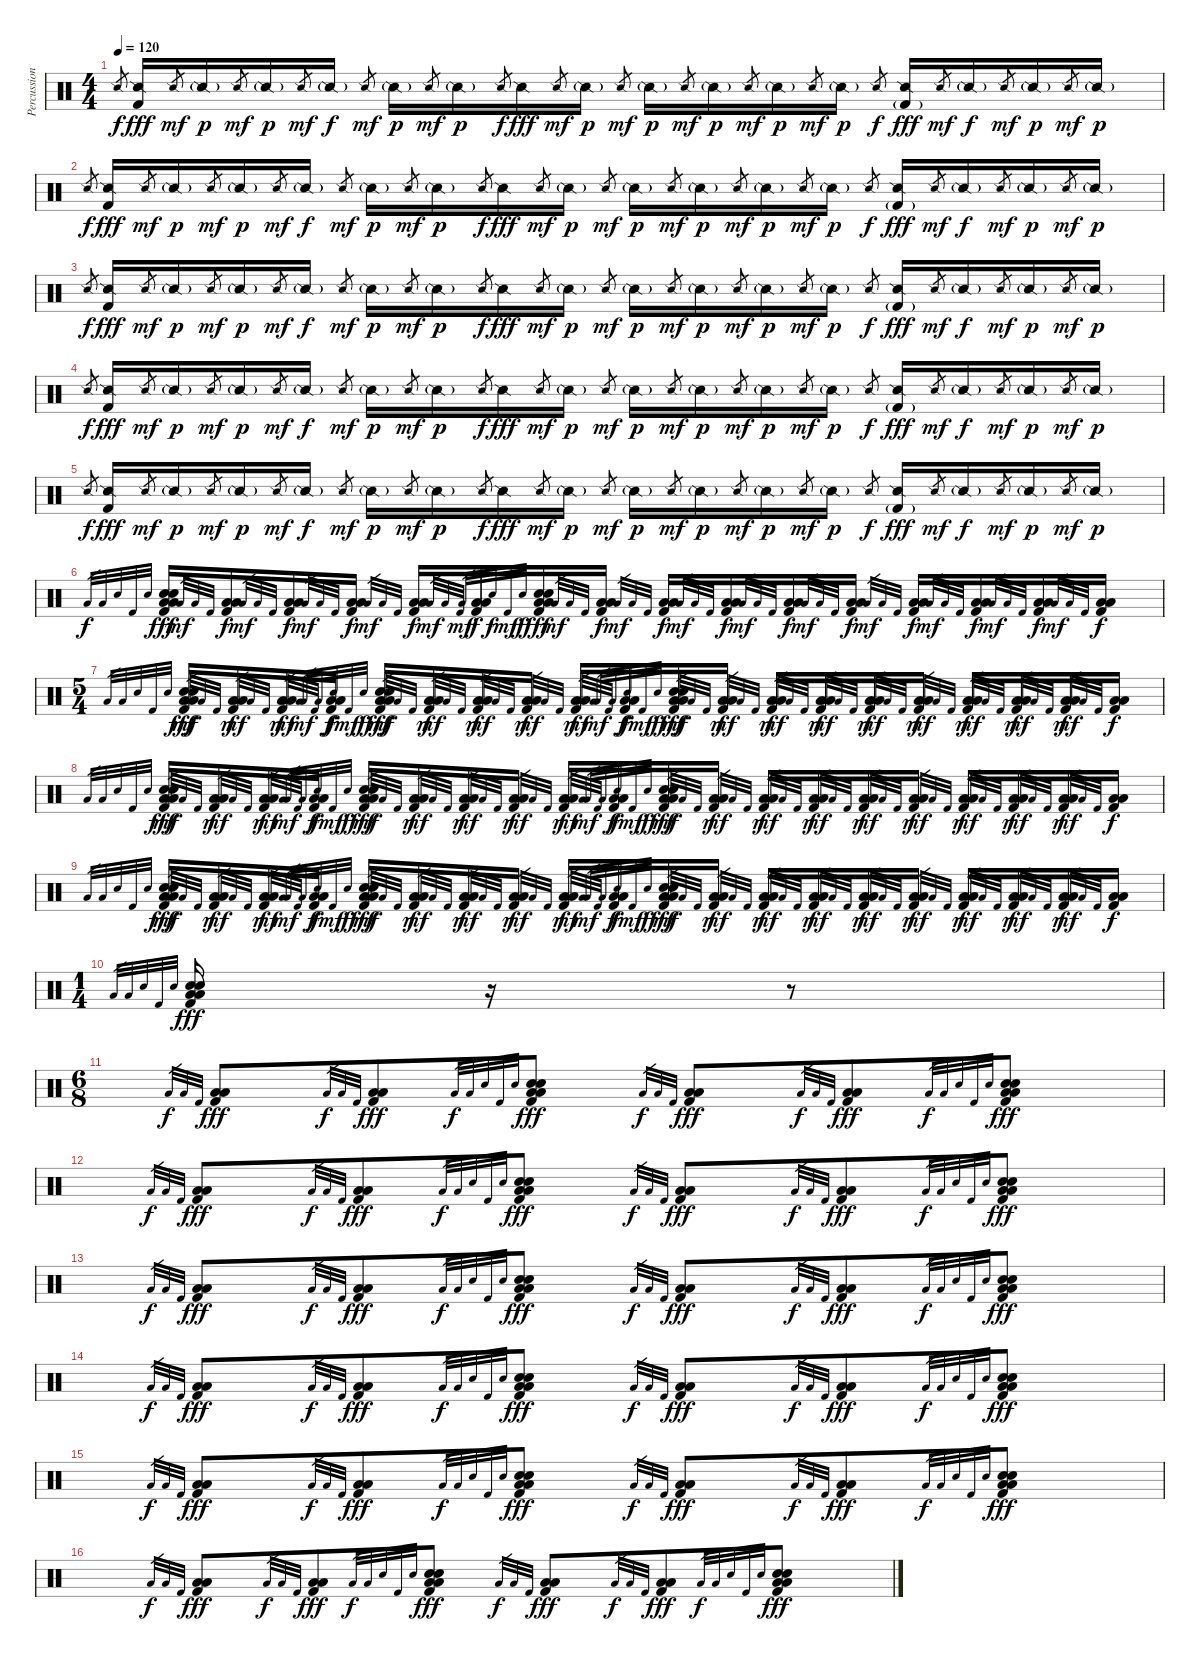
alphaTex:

\track ("Percussion" "Percussion") {instrument percussion}
\staff {score}
\articulation defaults
\ts (4 4)
\tempo 120
\clef neutral
\ks c "Snare (side stick) 2".8{gr dy f}
("Snare (side stick) 2" "Kick (hit) 2").16{dy fff} "Snare (side stick) 2".8{gr dy mf} "Snare (side stick) 2"{g}.16{dy p} "Snare (side stick) 2".8{gr dy mf} "Snare (side stick) 2"{g}.16{dy p} "Snare (side stick) 2".8{gr dy mf} "Snare (side stick) 2"{g}.16{dy f} "Snare (side stick) 2".8{gr dy mf} "Snare (side stick) 2"{g}.16{dy p} "Snare (side stick) 2".8{gr dy mf} "Snare (side stick) 2"{g}.16{dy p} "Snare (side stick) 2".8{gr dy f} "Snare (side stick) 2".16{dy fff} "Snare (side stick) 2".8{gr dy mf} "Snare (side stick) 2"{g}.16{dy p} "Snare (side stick) 2".8{gr dy mf} "Snare (side stick) 2"{g}.16{dy p} "Snare (side stick) 2".8{gr dy mf} "Snare (side stick) 2"{g}.16{dy p} "Snare (side stick) 2".8{gr dy mf} "Snare (side stick) 2"{g}.16{dy p} "Snare (side stick) 2".8{gr dy mf} "Snare (side stick) 2"{g}.16{dy p} "Snare (side stick) 2".8{gr dy f} ("Snare (side stick) 2" "Kick (hit) 2"{g}).16{dy fff} "Snare (side stick) 2".8{gr dy mf} "Snare (side stick) 2"{g}.16{dy f} "Snare (side stick) 2".8{gr dy mf} "Snare (side stick) 2"{g}.16{dy p} "Snare (side stick) 2".8{gr dy mf} "Snare (side stick) 2"{g}.16{dy p} |
"Snare (side stick) 2".8{gr dy f} ("Snare (side stick) 2" "Kick (hit) 2").16{dy fff} "Snare (side stick) 2".8{gr dy mf} "Snare (side stick) 2"{g}.16{dy p} "Snare (side stick) 2".8{gr dy mf} "Snare (side stick) 2"{g}.16{dy p} "Snare (side stick) 2".8{gr dy mf} "Snare (side stick) 2"{g}.16{dy f} "Snare (side stick) 2".8{gr dy mf} "Snare (side stick) 2"{g}.16{dy p} "Snare (side stick) 2".8{gr dy mf} "Snare (side stick) 2"{g}.16{dy p} "Snare (side stick) 2".8{gr dy f} "Snare (side stick) 2".16{dy fff} "Snare (side stick) 2".8{gr dy mf} "Snare (side stick) 2"{g}.16{dy p} "Snare (side stick) 2".8{gr dy mf} "Snare (side stick) 2"{g}.16{dy p} "Snare (side stick) 2".8{gr dy mf} "Snare (side stick) 2"{g}.16{dy p} "Snare (side stick) 2".8{gr dy mf} "Snare (side stick) 2"{g}.16{dy p} "Snare (side stick) 2".8{gr dy mf} "Snare (side stick) 2"{g}.16{dy p} "Snare (side stick) 2".8{gr dy f} ("Snare (side stick) 2" "Kick (hit) 2"{g}).16{dy fff} "Snare (side stick) 2".8{gr dy mf} "Snare (side stick) 2"{g}.16{dy f} "Snare (side stick) 2".8{gr dy mf} "Snare (side stick) 2"{g}.16{dy p} "Snare (side stick) 2".8{gr dy mf} "Snare (side stick) 2"{g}.16{dy p} |
"Snare (side stick) 2".8{gr dy f} ("Snare (side stick) 2" "Kick (hit) 2").16{dy fff} "Snare (side stick) 2".8{gr dy mf} "Snare (side stick) 2"{g}.16{dy p} "Snare (side stick) 2".8{gr dy mf} "Snare (side stick) 2"{g}.16{dy p} "Snare (side stick) 2".8{gr dy mf} "Snare (side stick) 2"{g}.16{dy f} "Snare (side stick) 2".8{gr dy mf} "Snare (side stick) 2"{g}.16{dy p} "Snare (side stick) 2".8{gr dy mf} "Snare (side stick) 2"{g}.16{dy p} "Snare (side stick) 2".8{gr dy f} "Snare (side stick) 2".16{dy fff} "Snare (side stick) 2".8{gr dy mf} "Snare (side stick) 2"{g}.16{dy p} "Snare (side stick) 2".8{gr dy mf} "Snare (side stick) 2"{g}.16{dy p} "Snare (side stick) 2".8{gr dy mf} "Snare (side stick) 2"{g}.16{dy p} "Snare (side stick) 2".8{gr dy mf} "Snare (side stick) 2"{g}.16{dy p} "Snare (side stick) 2".8{gr dy mf} "Snare (side stick) 2"{g}.16{dy p} "Snare (side stick) 2".8{gr dy f} ("Snare (side stick) 2" "Kick (hit) 2"{g}).16{dy fff} "Snare (side stick) 2".8{gr dy mf} "Snare (side stick) 2"{g}.16{dy f} "Snare (side stick) 2".8{gr dy mf} "Snare (side stick) 2"{g}.16{dy p} "Snare (side stick) 2".8{gr dy mf} "Snare (side stick) 2"{g}.16{dy p} |
"Snare (side stick) 2".8{gr dy f} ("Snare (side stick) 2" "Kick (hit) 2").16{dy fff} "Snare (side stick) 2".8{gr dy mf} "Snare (side stick) 2"{g}.16{dy p} "Snare (side stick) 2".8{gr dy mf} "Snare (side stick) 2"{g}.16{dy p} "Snare (side stick) 2".8{gr dy mf} "Snare (side stick) 2"{g}.16{dy f} "Snare (side stick) 2".8{gr dy mf} "Snare (side stick) 2"{g}.16{dy p} "Snare (side stick) 2".8{gr dy mf} "Snare (side stick) 2"{g}.16{dy p} "Snare (side stick) 2".8{gr dy f} "Snare (side stick) 2".16{dy fff} "Snare (side stick) 2".8{gr dy mf} "Snare (side stick) 2"{g}.16{dy p} "Snare (side stick) 2".8{gr dy mf} "Snare (side stick) 2"{g}.16{dy p} "Snare (side stick) 2".8{gr dy mf} "Snare (side stick) 2"{g}.16{dy p} "Snare (side stick) 2".8{gr dy mf} "Snare (side stick) 2"{g}.16{dy p} "Snare (side stick) 2".8{gr dy mf} "Snare (side stick) 2"{g}.16{dy p} "Snare (side stick) 2".8{gr dy f} ("Snare (side stick) 2" "Kick (hit) 2"{g}).16{dy fff} "Snare (side stick) 2".8{gr dy mf} "Snare (side stick) 2"{g}.16{dy f} "Snare (side stick) 2".8{gr dy mf} "Snare (side stick) 2"{g}.16{dy p} "Snare (side stick) 2".8{gr dy mf} "Snare (side stick) 2"{g}.16{dy p} |
"Snare (side stick) 2".8{gr dy f} ("Snare (side stick) 2" "Kick (hit) 2").16{dy fff} "Snare (side stick) 2".8{gr dy mf} "Snare (side stick) 2"{g}.16{dy p} "Snare (side stick) 2".8{gr dy mf} "Snare (side stick) 2"{g}.16{dy p} "Snare (side stick) 2".8{gr dy mf} "Snare (side stick) 2"{g}.16{dy f} "Snare (side stick) 2".8{gr dy mf} "Snare (side stick) 2"{g}.16{dy p} "Snare (side stick) 2".8{gr dy mf} "Snare (side stick) 2"{g}.16{dy p} "Snare (side stick) 2".8{gr dy f} "Snare (side stick) 2".16{dy fff} "Snare (side stick) 2".8{gr dy mf} "Snare (side stick) 2"{g}.16{dy p} "Snare (side stick) 2".8{gr dy mf} "Snare (side stick) 2"{g}.16{dy p} "Snare (side stick) 2".8{gr dy mf} "Snare (side stick) 2"{g}.16{dy p} "Snare (side stick) 2".8{gr dy mf} "Snare (side stick) 2"{g}.16{dy p} "Snare (side stick) 2".8{gr dy mf} "Snare (side stick) 2"{g}.16{dy p} "Snare (side stick) 2".8{gr dy f} ("Snare (side stick) 2" "Kick (hit) 2"{g}).16{dy fff} "Snare (side stick) 2".8{gr dy mf} "Snare (side stick) 2"{g}.16{dy f} "Snare (side stick) 2".8{gr dy mf} "Snare (side stick) 2"{g}.16{dy p} "Snare (side stick) 2".8{gr dy mf} "Snare (side stick) 2"{g}.16{dy p} |
"Low Floor Tom (hit)".32{gr dy f} "Low Tom (hit)".32{gr} "Snare (hit) 2".32{gr} "Kick (hit) 2".32{gr} "Snare (hit) 2".32{gr} ("Low Floor Tom (hit)" "Low Tom (hit)" "Snare (hit) 2" "Kick (hit) 2" "Snare (hit) 2").16{dy fff} "Low Floor Tom (hit)".32{gr dy mf} "Low Tom (hit)".32{gr} "Kick (hit) 2".32{gr} ("Low Floor Tom (hit)" "Low Tom (hit)" "Kick (hit) 2").16{dy f} "Low Floor Tom (hit)".32{gr dy mf} "Low Tom (hit)".32{gr} "Kick (hit) 2".32{gr} ("Low Floor Tom (hit)" "Low Tom (hit)" "Kick (hit) 2").16{dy f} "Low Floor Tom (hit)".32{gr dy mf} "Low Tom (hit)".32{gr} "Kick (hit) 2".32{gr} ("Low Floor Tom (hit)" "Low Tom (hit)" "Kick (hit) 2").16{dy f} "Low Floor Tom (hit)".32{gr dy mf} "Low Tom (hit)".32{gr} "Kick (hit) 2".32{gr} ("Low Floor Tom (hit)" "Low Tom (hit)" "Kick (hit) 2").16{dy f} "Low Floor Tom (hit)".32{gr dy mf} "Low Tom (hit)".32{gr} "Kick (hit) 2".32{gr} ("Low Floor Tom (hit)" "Low Tom (hit)" "Kick (hit) 2").16{dy f} "Low Floor Tom (hit)".32{gr dy mf} "Low Tom (hit)".32{gr} "Snare (hit) 2".32{gr dy f} "Kick (hit) 2".32{gr dy mf} "Snare (hit) 2".32{gr dy f} ("Low Floor Tom (hit)" "Low Tom (hit)" "Snare (hit) 2" "Kick (hit) 2" "Snare (hit) 2").16{dy fff} "Low Floor Tom (hit)".32{gr dy mf} "Low Tom (hit)".32{gr} "Kick (hit) 2".32{gr} ("Low Floor Tom (hit)" "Low Tom (hit)" "Kick (hit) 2").16{dy f} "Low Floor Tom (hit)".32{gr dy mf} "Low Tom (hit)".32{gr} "Kick (hit) 2".32{gr} ("Low Floor Tom (hit)" "Low Tom (hit)" "Kick (hit) 2").16{dy f} "Low Floor Tom (hit)".32{gr dy mf} "Low Tom (hit)".32{gr} "Kick (hit) 2".32{gr} ("Low Floor Tom (hit)" "Low Tom (hit)" "Kick (hit) 2").16{dy f} "Low Floor Tom (hit)".32{gr dy mf} "Low Tom (hit)".32{gr} "Kick (hit) 2".32{gr} ("Low Floor Tom (hit)" "Low Tom (hit)" "Kick (hit) 2").16{dy f} "Low Floor Tom (hit)".32{gr dy mf} "Low Tom (hit)".32{gr} "Kick (hit) 2".32{gr} ("Low Floor Tom (hit)" "Low Tom (hit)" "Kick (hit) 2").16{dy f} "Low Floor Tom (hit)".32{gr dy mf} "Low Tom (hit)".32{gr} "Kick (hit) 2".32{gr} ("Low Floor Tom (hit)" "Low Tom (hit)" "Kick (hit) 2").16{dy f} "Low Floor Tom (hit)".32{gr dy mf} "Low Tom (hit)".32{gr} "Kick (hit) 2".32{gr} ("Low Floor Tom (hit)" "Low Tom (hit)" "Kick (hit) 2").16{dy f} "Low Floor Tom (hit)".32{gr dy mf} "Low Tom (hit)".32{gr} "Kick (hit) 2".32{gr} ("Low Floor Tom (hit)" "Low Tom (hit)" "Kick (hit) 2").16{dy f} "Low Floor Tom (hit)".32{gr dy mf} "Low Tom (hit)".32{gr} "Kick (hit) 2".32{gr} ("Low Floor Tom (hit)" "Low Tom (hit)" "Kick (hit) 2").16{dy f} |
\ts (5 4)
"Low Floor Tom (hit)".32{gr} "Low Tom (hit)".32{gr} "Snare (hit) 2".32{gr} "Kick (hit) 2".32{gr} "Snare (hit) 2".32{gr} ("Low Floor Tom (hit)" "Low Tom (hit)" "Snare (hit) 2" "Kick (hit) 2" "Snare (hit) 2").16{dy fff} "Low Floor Tom (hit)".32{gr dy mf} "Low Tom (hit)".32{gr} "Kick (hit) 2".32{gr} ("Low Floor Tom (hit)" "Low Tom (hit)" "Kick (hit) 2").16{dy f} "Low Floor Tom (hit)".32{gr dy mf} "Low Tom (hit)".32{gr} "Kick (hit) 2".32{gr} ("Low Floor Tom (hit)" "Low Tom (hit)" "Kick (hit) 2").16{dy f} "Low Floor Tom (hit)".32{gr dy mf} "Low Tom (hit)".32{gr} "Kick (hit) 2".32{gr} ("Low Floor Tom (hit)" "Low Tom (hit)" "Kick (hit) 2").16{dy f} "Low Floor Tom (hit)".32{gr dy mf} "Low Tom (hit)".32{gr} "Snare (hit) 2".32{gr dy f} "Kick (hit) 2".32{gr dy mf} "Snare (hit) 2".32{gr dy f} ("Low Floor Tom (hit)" "Low Tom (hit)" "Snare (hit) 2" "Kick (hit) 2" "Snare (hit) 2").16{dy fff} "Low Floor Tom (hit)".32{gr dy mf} "Low Tom (hit)".32{gr} "Kick (hit) 2".32{gr} ("Low Floor Tom (hit)" "Low Tom (hit)" "Kick (hit) 2").16{dy f} "Low Floor Tom (hit)".32{gr dy mf} "Low Tom (hit)".32{gr} "Kick (hit) 2".32{gr} ("Low Floor Tom (hit)" "Low Tom (hit)" "Kick (hit) 2").16{dy f} "Low Floor Tom (hit)".32{gr dy mf} "Low Tom (hit)".32{gr} "Kick (hit) 2".32{gr} ("Low Floor Tom (hit)" "Low Tom (hit)" "Kick (hit) 2").16{dy f} "Low Floor Tom (hit)".32{gr dy mf} "Low Tom (hit)".32{gr} "Kick (hit) 2".32{gr} ("Low Floor Tom (hit)" "Low Tom (hit)" "Kick (hit) 2").16{dy f} "Low Floor Tom (hit)".32{gr dy mf} "Low Tom (hit)".32{gr} "Kick (hit) 2".32{gr} ("Low Floor Tom (hit)" "Low Tom (hit)" "Kick (hit) 2").16{dy f} "Low Floor Tom (hit)".32{gr dy mf} "Low Tom (hit)".32{gr} "Snare (hit) 2".32{gr dy f} "Kick (hit) 2".32{gr dy mf} "Snare (hit) 2".32{gr dy f} ("Low Floor Tom (hit)" "Low Tom (hit)" "Snare (hit) 2" "Kick (hit) 2" "Snare (hit) 2").16{dy fff} "Low Floor Tom (hit)".32{gr dy mf} "Low Tom (hit)".32{gr} "Kick (hit) 2".32{gr} ("Low Floor Tom (hit)" "Low Tom (hit)" "Kick (hit) 2").16{dy f} "Low Floor Tom (hit)".32{gr dy mf} "Low Tom (hit)".32{gr} "Kick (hit) 2".32{gr} ("Low Floor Tom (hit)" "Low Tom (hit)" "Kick (hit) 2").16{dy f} "Low Floor Tom (hit)".32{gr dy mf} "Low Tom (hit)".32{gr} "Kick (hit) 2".32{gr} ("Low Floor Tom (hit)" "Low Tom (hit)" "Kick (hit) 2").16{dy f} "Low Floor Tom (hit)".32{gr dy mf} "Low Tom (hit)".32{gr} "Kick (hit) 2".32{gr} ("Low Floor Tom (hit)" "Low Tom (hit)" "Kick (hit) 2").16{dy f} "Low Floor Tom (hit)".32{gr dy mf} "Low Tom (hit)".32{gr} "Kick (hit) 2".32{gr} ("Low Floor Tom (hit)" "Low Tom (hit)" "Kick (hit) 2").16{dy f} "Low Floor Tom (hit)".32{gr dy mf} "Low Tom (hit)".32{gr} "Kick (hit) 2".32{gr} ("Low Floor Tom (hit)" "Low Tom (hit)" "Kick (hit) 2").16{dy f} "Low Floor Tom (hit)".32{gr dy mf} "Low Tom (hit)".32{gr} "Kick (hit) 2".32{gr} ("Low Floor Tom (hit)" "Low Tom (hit)" "Kick (hit) 2").16{dy f} "Low Floor Tom (hit)".32{gr dy mf} "Low Tom (hit)".32{gr} "Kick (hit) 2".32{gr} ("Low Floor Tom (hit)" "Low Tom (hit)" "Kick (hit) 2").16{dy f} "Low Floor Tom (hit)".32{gr dy mf} "Low Tom (hit)".32{gr} "Kick (hit) 2".32{gr} ("Low Floor Tom (hit)" "Low Tom (hit)" "Kick (hit) 2").16{dy f} |
"Low Floor Tom (hit)".32{gr} "Low Tom (hit)".32{gr} "Snare (hit) 2".32{gr} "Kick (hit) 2".32{gr} "Snare (hit) 2".32{gr} ("Low Floor Tom (hit)" "Low Tom (hit)" "Snare (hit) 2" "Kick (hit) 2" "Snare (hit) 2").16{dy fff} "Low Floor Tom (hit)".32{gr dy mf} "Low Tom (hit)".32{gr} "Kick (hit) 2".32{gr} ("Low Floor Tom (hit)" "Low Tom (hit)" "Kick (hit) 2").16{dy f} "Low Floor Tom (hit)".32{gr dy mf} "Low Tom (hit)".32{gr} "Kick (hit) 2".32{gr} ("Low Floor Tom (hit)" "Low Tom (hit)" "Kick (hit) 2").16{dy f} "Low Floor Tom (hit)".32{gr dy mf} "Low Tom (hit)".32{gr} "Kick (hit) 2".32{gr} ("Low Floor Tom (hit)" "Low Tom (hit)" "Kick (hit) 2").16{dy f} "Low Floor Tom (hit)".32{gr dy mf} "Low Tom (hit)".32{gr} "Snare (hit) 2".32{gr dy f} "Kick (hit) 2".32{gr dy mf} "Snare (hit) 2".32{gr dy f} ("Low Floor Tom (hit)" "Low Tom (hit)" "Snare (hit) 2" "Kick (hit) 2" "Snare (hit) 2").16{dy fff} "Low Floor Tom (hit)".32{gr dy mf} "Low Tom (hit)".32{gr} "Kick (hit) 2".32{gr} ("Low Floor Tom (hit)" "Low Tom (hit)" "Kick (hit) 2").16{dy f} "Low Floor Tom (hit)".32{gr dy mf} "Low Tom (hit)".32{gr} "Kick (hit) 2".32{gr} ("Low Floor Tom (hit)" "Low Tom (hit)" "Kick (hit) 2").16{dy f} "Low Floor Tom (hit)".32{gr dy mf} "Low Tom (hit)".32{gr} "Kick (hit) 2".32{gr} ("Low Floor Tom (hit)" "Low Tom (hit)" "Kick (hit) 2").16{dy f} "Low Floor Tom (hit)".32{gr dy mf} "Low Tom (hit)".32{gr} "Kick (hit) 2".32{gr} ("Low Floor Tom (hit)" "Low Tom (hit)" "Kick (hit) 2").16{dy f} "Low Floor Tom (hit)".32{gr dy mf} "Low Tom (hit)".32{gr} "Kick (hit) 2".32{gr} ("Low Floor Tom (hit)" "Low Tom (hit)" "Kick (hit) 2").16{dy f} "Low Floor Tom (hit)".32{gr dy mf} "Low Tom (hit)".32{gr} "Snare (hit) 2".32{gr dy f} "Kick (hit) 2".32{gr dy mf} "Snare (hit) 2".32{gr dy f} ("Low Floor Tom (hit)" "Low Tom (hit)" "Snare (hit) 2" "Kick (hit) 2" "Snare (hit) 2").16{dy fff} "Low Floor Tom (hit)".32{gr dy mf} "Low Tom (hit)".32{gr} "Kick (hit) 2".32{gr} ("Low Floor Tom (hit)" "Low Tom (hit)" "Kick (hit) 2").16{dy f} "Low Floor Tom (hit)".32{gr dy mf} "Low Tom (hit)".32{gr} "Kick (hit) 2".32{gr} ("Low Floor Tom (hit)" "Low Tom (hit)" "Kick (hit) 2").16{dy f} "Low Floor Tom (hit)".32{gr dy mf} "Low Tom (hit)".32{gr} "Kick (hit) 2".32{gr} ("Low Floor Tom (hit)" "Low Tom (hit)" "Kick (hit) 2").16{dy f} "Low Floor Tom (hit)".32{gr dy mf} "Low Tom (hit)".32{gr} "Kick (hit) 2".32{gr} ("Low Floor Tom (hit)" "Low Tom (hit)" "Kick (hit) 2").16{dy f} "Low Floor Tom (hit)".32{gr dy mf} "Low Tom (hit)".32{gr} "Kick (hit) 2".32{gr} ("Low Floor Tom (hit)" "Low Tom (hit)" "Kick (hit) 2").16{dy f} "Low Floor Tom (hit)".32{gr dy mf} "Low Tom (hit)".32{gr} "Kick (hit) 2".32{gr} ("Low Floor Tom (hit)" "Low Tom (hit)" "Kick (hit) 2").16{dy f} "Low Floor Tom (hit)".32{gr dy mf} "Low Tom (hit)".32{gr} "Kick (hit) 2".32{gr} ("Low Floor Tom (hit)" "Low Tom (hit)" "Kick (hit) 2").16{dy f} "Low Floor Tom (hit)".32{gr dy mf} "Low Tom (hit)".32{gr} "Kick (hit) 2".32{gr} ("Low Floor Tom (hit)" "Low Tom (hit)" "Kick (hit) 2").16{dy f} "Low Floor Tom (hit)".32{gr dy mf} "Low Tom (hit)".32{gr} "Kick (hit) 2".32{gr} ("Low Floor Tom (hit)" "Low Tom (hit)" "Kick (hit) 2").16{dy f} |
"Low Floor Tom (hit)".32{gr} "Low Tom (hit)".32{gr} "Snare (hit) 2".32{gr} "Kick (hit) 2".32{gr} "Snare (hit) 2".32{gr} ("Low Floor Tom (hit)" "Low Tom (hit)" "Snare (hit) 2" "Kick (hit) 2" "Snare (hit) 2").16{dy fff} "Low Floor Tom (hit)".32{gr dy mf} "Low Tom (hit)".32{gr} "Kick (hit) 2".32{gr} ("Low Floor Tom (hit)" "Low Tom (hit)" "Kick (hit) 2").16{dy f} "Low Floor Tom (hit)".32{gr dy mf} "Low Tom (hit)".32{gr} "Kick (hit) 2".32{gr} ("Low Floor Tom (hit)" "Low Tom (hit)" "Kick (hit) 2").16{dy f} "Low Floor Tom (hit)".32{gr dy mf} "Low Tom (hit)".32{gr} "Kick (hit) 2".32{gr} ("Low Floor Tom (hit)" "Low Tom (hit)" "Kick (hit) 2").16{dy f} "Low Floor Tom (hit)".32{gr dy mf} "Low Tom (hit)".32{gr} "Snare (hit) 2".32{gr dy f} "Kick (hit) 2".32{gr dy mf} "Snare (hit) 2".32{gr dy f} ("Low Floor Tom (hit)" "Low Tom (hit)" "Snare (hit) 2" "Kick (hit) 2" "Snare (hit) 2").16{dy fff} "Low Floor Tom (hit)".32{gr dy mf} "Low Tom (hit)".32{gr} "Kick (hit) 2".32{gr} ("Low Floor Tom (hit)" "Low Tom (hit)" "Kick (hit) 2").16{dy f} "Low Floor Tom (hit)".32{gr dy mf} "Low Tom (hit)".32{gr} "Kick (hit) 2".32{gr} ("Low Floor Tom (hit)" "Low Tom (hit)" "Kick (hit) 2").16{dy f} "Low Floor Tom (hit)".32{gr dy mf} "Low Tom (hit)".32{gr} "Kick (hit) 2".32{gr} ("Low Floor Tom (hit)" "Low Tom (hit)" "Kick (hit) 2").16{dy f} "Low Floor Tom (hit)".32{gr dy mf} "Low Tom (hit)".32{gr} "Kick (hit) 2".32{gr} ("Low Floor Tom (hit)" "Low Tom (hit)" "Kick (hit) 2").16{dy f} "Low Floor Tom (hit)".32{gr dy mf} "Low Tom (hit)".32{gr} "Kick (hit) 2".32{gr} ("Low Floor Tom (hit)" "Low Tom (hit)" "Kick (hit) 2").16{dy f} "Low Floor Tom (hit)".32{gr dy mf} "Low Tom (hit)".32{gr} "Snare (hit) 2".32{gr dy f} "Kick (hit) 2".32{gr dy mf} "Snare (hit) 2".32{gr dy f} ("Low Floor Tom (hit)" "Low Tom (hit)" "Snare (hit) 2" "Kick (hit) 2" "Snare (hit) 2").16{dy fff} "Low Floor Tom (hit)".32{gr dy mf} "Low Tom (hit)".32{gr} "Kick (hit) 2".32{gr} ("Low Floor Tom (hit)" "Low Tom (hit)" "Kick (hit) 2").16{dy f} "Low Floor Tom (hit)".32{gr dy mf} "Low Tom (hit)".32{gr} "Kick (hit) 2".32{gr} ("Low Floor Tom (hit)" "Low Tom (hit)" "Kick (hit) 2").16{dy f} "Low Floor Tom (hit)".32{gr dy mf} "Low Tom (hit)".32{gr} "Kick (hit) 2".32{gr} ("Low Floor Tom (hit)" "Low Tom (hit)" "Kick (hit) 2").16{dy f} "Low Floor Tom (hit)".32{gr dy mf} "Low Tom (hit)".32{gr} "Kick (hit) 2".32{gr} ("Low Floor Tom (hit)" "Low Tom (hit)" "Kick (hit) 2").16{dy f} "Low Floor Tom (hit)".32{gr dy mf} "Low Tom (hit)".32{gr} "Kick (hit) 2".32{gr} ("Low Floor Tom (hit)" "Low Tom (hit)" "Kick (hit) 2").16{dy f} "Low Floor Tom (hit)".32{gr dy mf} "Low Tom (hit)".32{gr} "Kick (hit) 2".32{gr} ("Low Floor Tom (hit)" "Low Tom (hit)" "Kick (hit) 2").16{dy f} "Low Floor Tom (hit)".32{gr dy mf} "Low Tom (hit)".32{gr} "Kick (hit) 2".32{gr} ("Low Floor Tom (hit)" "Low Tom (hit)" "Kick (hit) 2").16{dy f} "Low Floor Tom (hit)".32{gr dy mf} "Low Tom (hit)".32{gr} "Kick (hit) 2".32{gr} ("Low Floor Tom (hit)" "Low Tom (hit)" "Kick (hit) 2").16{dy f} "Low Floor Tom (hit)".32{gr dy mf} "Low Tom (hit)".32{gr} "Kick (hit) 2".32{gr} ("Low Floor Tom (hit)" "Low Tom (hit)" "Kick (hit) 2").16{dy f} |
\ts (1 4)
"Low Floor Tom (hit)".32{gr} "Low Tom (hit)".32{gr} "Snare (hit) 2".32{gr} "Kick (hit) 2".32{gr} "Snare (hit) 2".32{gr} ("Low Floor Tom (hit)" "Low Tom (hit)" "Snare (hit) 2" "Kick (hit) 2" "Snare (hit) 2").16{dy fff} r.16 r.8 |
\ts (6 8)
"Low Floor Tom (hit)".32{gr dy f} "Low Tom (hit)".32{gr} "Kick (hit) 2".32{gr} ("Low Floor Tom (hit)" "Low Tom (hit)" "Kick (hit) 2").8{dy fff} "Low Floor Tom (hit)".32{gr dy f} "Low Tom (hit)".32{gr} "Kick (hit) 2".32{gr} ("Low Floor Tom (hit)" "Low Tom (hit)" "Kick (hit) 2").8{dy fff} "Low Floor Tom (hit)".32{gr dy f} "Low Tom (hit)".32{gr} "Snare (hit) 2".32{gr} "Kick (hit) 2".32{gr} "Snare (hit) 2".32{gr} ("Low Floor Tom (hit)" "Low Tom (hit)" "Snare (hit) 2" "Kick (hit) 2" "Snare (hit) 2").8{dy fff} "Low Floor Tom (hit)".32{gr dy f} "Low Tom (hit)".32{gr} "Kick (hit) 2".32{gr} ("Low Floor Tom (hit)" "Low Tom (hit)" "Kick (hit) 2").8{dy fff} "Low Floor Tom (hit)".32{gr dy f} "Low Tom (hit)".32{gr} "Kick (hit) 2".32{gr} ("Low Floor Tom (hit)" "Low Tom (hit)" "Kick (hit) 2").8{dy fff} "Low Floor Tom (hit)".32{gr dy f} "Low Tom (hit)".32{gr} "Snare (hit) 2".32{gr} "Kick (hit) 2".32{gr} "Snare (hit) 2".32{gr} ("Low Floor Tom (hit)" "Low Tom (hit)" "Snare (hit) 2" "Kick (hit) 2" "Snare (hit) 2").8{dy fff} |
"Low Floor Tom (hit)".32{gr dy f} "Low Tom (hit)".32{gr} "Kick (hit) 2".32{gr} ("Low Floor Tom (hit)" "Low Tom (hit)" "Kick (hit) 2").8{dy fff} "Low Floor Tom (hit)".32{gr dy f} "Low Tom (hit)".32{gr} "Kick (hit) 2".32{gr} ("Low Floor Tom (hit)" "Low Tom (hit)" "Kick (hit) 2").8{dy fff} "Low Floor Tom (hit)".32{gr dy f} "Low Tom (hit)".32{gr} "Snare (hit) 2".32{gr} "Kick (hit) 2".32{gr} "Snare (hit) 2".32{gr} ("Low Floor Tom (hit)" "Low Tom (hit)" "Snare (hit) 2" "Kick (hit) 2" "Snare (hit) 2").8{dy fff} "Low Floor Tom (hit)".32{gr dy f} "Low Tom (hit)".32{gr} "Kick (hit) 2".32{gr} ("Low Floor Tom (hit)" "Low Tom (hit)" "Kick (hit) 2").8{dy fff} "Low Floor Tom (hit)".32{gr dy f} "Low Tom (hit)".32{gr} "Kick (hit) 2".32{gr} ("Low Floor Tom (hit)" "Low Tom (hit)" "Kick (hit) 2").8{dy fff} "Low Floor Tom (hit)".32{gr dy f} "Low Tom (hit)".32{gr} "Snare (hit) 2".32{gr} "Kick (hit) 2".32{gr} "Snare (hit) 2".32{gr} ("Low Floor Tom (hit)" "Low Tom (hit)" "Snare (hit) 2" "Kick (hit) 2" "Snare (hit) 2").8{dy fff} |
"Low Floor Tom (hit)".32{gr dy f} "Low Tom (hit)".32{gr} "Kick (hit) 2".32{gr} ("Low Floor Tom (hit)" "Low Tom (hit)" "Kick (hit) 2").8{dy fff} "Low Floor Tom (hit)".32{gr dy f} "Low Tom (hit)".32{gr} "Kick (hit) 2".32{gr} ("Low Floor Tom (hit)" "Low Tom (hit)" "Kick (hit) 2").8{dy fff} "Low Floor Tom (hit)".32{gr dy f} "Low Tom (hit)".32{gr} "Snare (hit) 2".32{gr} "Kick (hit) 2".32{gr} "Snare (hit) 2".32{gr} ("Low Floor Tom (hit)" "Low Tom (hit)" "Snare (hit) 2" "Kick (hit) 2" "Snare (hit) 2").8{dy fff} "Low Floor Tom (hit)".32{gr dy f} "Low Tom (hit)".32{gr} "Kick (hit) 2".32{gr} ("Low Floor Tom (hit)" "Low Tom (hit)" "Kick (hit) 2").8{dy fff} "Low Floor Tom (hit)".32{gr dy f} "Low Tom (hit)".32{gr} "Kick (hit) 2".32{gr} ("Low Floor Tom (hit)" "Low Tom (hit)" "Kick (hit) 2").8{dy fff} "Low Floor Tom (hit)".32{gr dy f} "Low Tom (hit)".32{gr} "Snare (hit) 2".32{gr} "Kick (hit) 2".32{gr} "Snare (hit) 2".32{gr} ("Low Floor Tom (hit)" "Low Tom (hit)" "Snare (hit) 2" "Kick (hit) 2" "Snare (hit) 2").8{dy fff} |
"Low Floor Tom (hit)".32{gr dy f} "Low Tom (hit)".32{gr} "Kick (hit) 2".32{gr} ("Low Floor Tom (hit)" "Low Tom (hit)" "Kick (hit) 2").8{dy fff volume 0} "Low Floor Tom (hit)".32{gr dy f} "Low Tom (hit)".32{gr} "Kick (hit) 2".32{gr} ("Low Floor Tom (hit)" "Low Tom (hit)" "Kick (hit) 2").8{dy fff} "Low Floor Tom (hit)".32{gr dy f} "Low Tom (hit)".32{gr} "Snare (hit) 2".32{gr} "Kick (hit) 2".32{gr} "Snare (hit) 2".32{gr} ("Low Floor Tom (hit)" "Low Tom (hit)" "Snare (hit) 2" "Kick (hit) 2" "Snare (hit) 2").8{dy fff} "Low Floor Tom (hit)".32{gr dy f} "Low Tom (hit)".32{gr} "Kick (hit) 2".32{gr} ("Low Floor Tom (hit)" "Low Tom (hit)" "Kick (hit) 2").8{dy fff} "Low Floor Tom (hit)".32{gr dy f} "Low Tom (hit)".32{gr} "Kick (hit) 2".32{gr} ("Low Floor Tom (hit)" "Low Tom (hit)" "Kick (hit) 2").8{dy fff} "Low Floor Tom (hit)".32{gr dy f} "Low Tom (hit)".32{gr} "Snare (hit) 2".32{gr} "Kick (hit) 2".32{gr} "Snare (hit) 2".32{gr} ("Low Floor Tom (hit)" "Low Tom (hit)" "Snare (hit) 2" "Kick (hit) 2" "Snare (hit) 2").8{dy fff} |
"Low Floor Tom (hit)".32{gr dy f} "Low Tom (hit)".32{gr} "Kick (hit) 2".32{gr} ("Low Floor Tom (hit)" "Low Tom (hit)" "Kick (hit) 2").8{dy fff} "Low Floor Tom (hit)".32{gr dy f} "Low Tom (hit)".32{gr} "Kick (hit) 2".32{gr} ("Low Floor Tom (hit)" "Low Tom (hit)" "Kick (hit) 2").8{dy fff} "Low Floor Tom (hit)".32{gr dy f} "Low Tom (hit)".32{gr} "Snare (hit) 2".32{gr} "Kick (hit) 2".32{gr} "Snare (hit) 2".32{gr} ("Low Floor Tom (hit)" "Low Tom (hit)" "Snare (hit) 2" "Kick (hit) 2" "Snare (hit) 2").8{dy fff} "Low Floor Tom (hit)".32{gr dy f} "Low Tom (hit)".32{gr} "Kick (hit) 2".32{gr} ("Low Floor Tom (hit)" "Low Tom (hit)" "Kick (hit) 2").8{dy fff} "Low Floor Tom (hit)".32{gr dy f} "Low Tom (hit)".32{gr} "Kick (hit) 2".32{gr} ("Low Floor Tom (hit)" "Low Tom (hit)" "Kick (hit) 2").8{dy fff} "Low Floor Tom (hit)".32{gr dy f} "Low Tom (hit)".32{gr} "Snare (hit) 2".32{gr} "Kick (hit) 2".32{gr} "Snare (hit) 2".32{gr} ("Low Floor Tom (hit)" "Low Tom (hit)" "Snare (hit) 2" "Kick (hit) 2" "Snare (hit) 2").8{dy fff} |
"Low Floor Tom (hit)".32{gr dy f} "Low Tom (hit)".32{gr} "Kick (hit) 2".32{gr} ("Low Floor Tom (hit)" "Low Tom (hit)" "Kick (hit) 2").8{dy fff} "Low Floor Tom (hit)".32{gr dy f} "Low Tom (hit)".32{gr} "Kick (hit) 2".32{gr} ("Low Floor Tom (hit)" "Low Tom (hit)" "Kick (hit) 2").8{dy fff} "Low Floor Tom (hit)".32{gr dy f} "Low Tom (hit)".32{gr} "Snare (hit) 2".32{gr} "Kick (hit) 2".32{gr} "Snare (hit) 2".32{gr} ("Low Floor Tom (hit)" "Low Tom (hit)" "Snare (hit) 2" "Kick (hit) 2" "Snare (hit) 2").8{dy fff} "Low Floor Tom (hit)".32{gr dy f} "Low Tom (hit)".32{gr} "Kick (hit) 2".32{gr} ("Low Floor Tom (hit)" "Low Tom (hit)" "Kick (hit) 2").8{dy fff} "Low Floor Tom (hit)".32{gr dy f} "Low Tom (hit)".32{gr} "Kick (hit) 2".32{gr} ("Low Floor Tom (hit)" "Low Tom (hit)" "Kick (hit) 2").8{dy fff} "Low Floor Tom (hit)".32{gr dy f} "Low Tom (hit)".32{gr} "Snare (hit) 2".32{gr} "Kick (hit) 2".32{gr} "Snare (hit) 2".32{gr} ("Low Floor Tom (hit)" "Low Tom (hit)" "Snare (hit) 2" "Kick (hit) 2" "Snare (hit) 2").8{dy fff}
